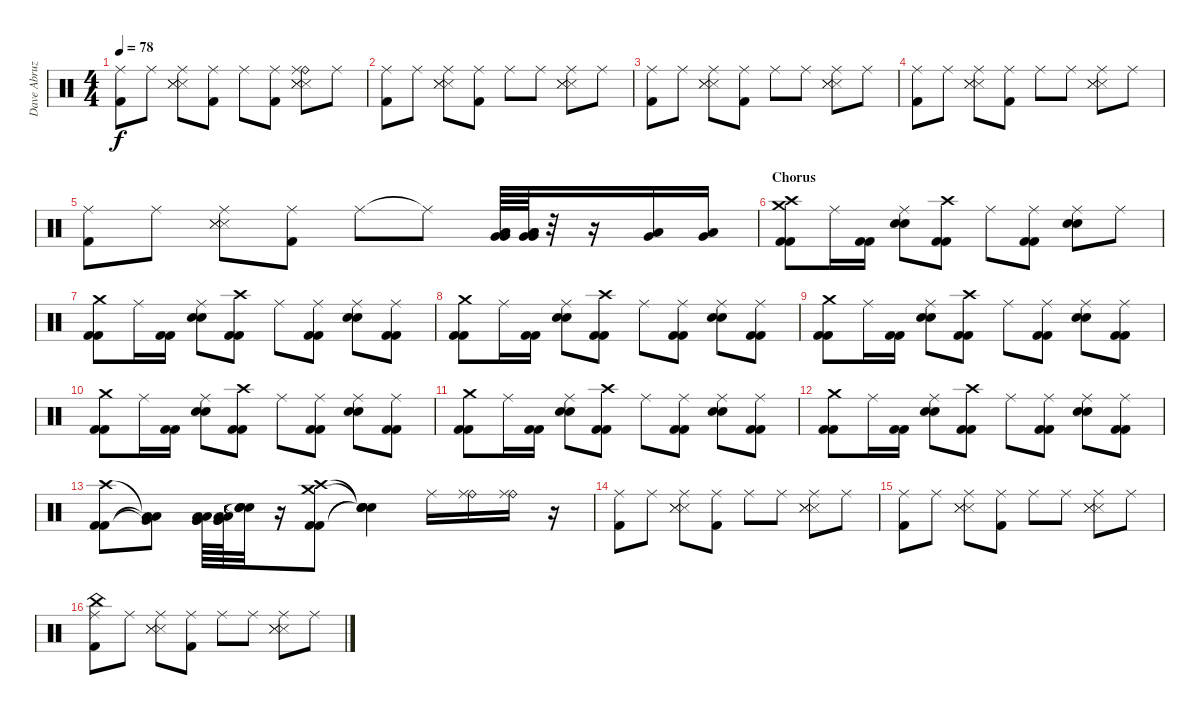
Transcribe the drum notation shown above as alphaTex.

\track ("Dave Abruzzese (live)" "Dave Abruz") {instrument percussion}
\staff {score}
\articulation defaults
\ts (4 4)
\tempo 78
\clef neutral
\ks c
("Ride (middle)" "Kick (hit) 2").8{dy f} "Ride (middle)".8 ("Ride (middle)" "Snare (side stick) 3" "Snare (side stick) 3" "Snare (side stick) 3").8 ("Ride (middle)" "Kick (hit) 2").8 "Ride (middle)".8 ("Ride (middle)" "Kick (hit) 2").8 ("Ride (bell)" "Ride (middle)" "Snare (side stick) 3" "Snare (side stick) 3" "Snare (side stick) 3").8 "Ride (middle)".8 |
("Ride (middle)" "Kick (hit) 2").8 "Ride (middle)".8 ("Ride (middle)" "Snare (side stick) 3" "Snare (side stick) 3" "Snare (side stick) 3").8 ("Ride (middle)" "Kick (hit) 2").8 "Ride (middle)".8 "Ride (middle)".8 ("Ride (middle)" "Snare (side stick) 3" "Snare (side stick) 3" "Snare (side stick) 3").8 "Ride (middle)".8 |
("Ride (middle)" "Kick (hit) 2").8 "Ride (middle)".8 ("Ride (middle)" "Snare (side stick) 3" "Snare (side stick) 3" "Snare (side stick) 3").8 ("Ride (middle)" "Kick (hit) 2").8 "Ride (middle)".8 "Ride (middle)".8 ("Ride (middle)" "Snare (side stick) 3" "Snare (side stick) 3" "Snare (side stick) 3").8 "Ride (middle)".8 |
("Ride (middle)" "Kick (hit) 2").8 "Ride (middle)".8 ("Ride (middle)" "Snare (side stick) 3" "Snare (side stick) 3" "Snare (side stick) 3").8 ("Ride (middle)" "Kick (hit) 2").8 "Ride (middle)".8 "Ride (middle)".8 ("Ride (middle)" "Snare (side stick) 3" "Snare (side stick) 3" "Snare (side stick) 3").8 "Ride (middle)".8 |
("Ride (middle)" "Kick (hit) 2").8 "Ride (middle)".8 ("Ride (middle)" "Snare (side stick) 3" "Snare (side stick) 3" "Snare (side stick) 3").8 ("Ride (middle)" "Kick (hit) 2").8 "Ride (middle)".8 "Ride (middle)"{t}.8 ("Low Tom (hit)" "Low Tom (hit)" "Very Low Tom (hit)" "Very Low Tom (hit)").64 ("Low Tom (hit)" "Low Tom (hit)" "Very Low Tom (hit)" "Very Low Tom (hit)").64 r.32 r.16 ("Low Tom (hit)" "Very Low Tom (hit)").16 ("Low Tom (hit)" "Very Low Tom (hit)").16 |
\section ("" "Chorus")
("Crash medium (hit)" "Crash high (hit)" "Kick (hit) 2" "Kick (hit) 2").8 "Ride (middle)".16 ("Kick (hit) 2" "Kick (hit) 2").16 ("Ride (middle)" "Electric Snare (hit)" "Electric Snare (hit)").8 ("Crash high (hit)" "Kick (hit) 2" "Kick (hit) 2").8 "Ride (middle)".8 ("Ride (middle)" "Kick (hit) 2" "Kick (hit) 2").8 ("Ride (middle)" "Electric Snare (hit)" "Electric Snare (hit)").8 "Ride (middle)".8 |
("Crash medium (hit)" "Kick (hit) 2" "Kick (hit) 2").8 "Ride (middle)".16 ("Kick (hit) 2" "Kick (hit) 2").16 ("Ride (middle)" "Electric Snare (hit)" "Electric Snare (hit)").8 ("Crash high (hit)" "Kick (hit) 2" "Kick (hit) 2").8 "Ride (middle)".8 ("Ride (middle)" "Kick (hit) 2" "Kick (hit) 2").8 ("Ride (middle)" "Electric Snare (hit)" "Electric Snare (hit)").8 ("Ride (middle)" "Kick (hit) 2" "Kick (hit) 2").8 |
("Crash medium (hit)" "Kick (hit) 2" "Kick (hit) 2").8 "Ride (middle)".16 ("Kick (hit) 2" "Kick (hit) 2").16 ("Ride (middle)" "Electric Snare (hit)" "Electric Snare (hit)").8 ("Crash high (hit)" "Kick (hit) 2" "Kick (hit) 2").8 "Ride (middle)".8 ("Ride (middle)" "Kick (hit) 2" "Kick (hit) 2").8 ("Ride (middle)" "Electric Snare (hit)" "Electric Snare (hit)").8 ("Ride (middle)" "Kick (hit) 2" "Kick (hit) 2").8 |
("Crash medium (hit)" "Kick (hit) 2" "Kick (hit) 2").8 "Ride (middle)".16 ("Kick (hit) 2" "Kick (hit) 2").16 ("Ride (middle)" "Electric Snare (hit)" "Electric Snare (hit)").8 ("Crash high (hit)" "Kick (hit) 2" "Kick (hit) 2").8 "Ride (middle)".8 ("Ride (middle)" "Kick (hit) 2" "Kick (hit) 2").8 ("Ride (middle)" "Electric Snare (hit)" "Electric Snare (hit)").8 ("Ride (middle)" "Kick (hit) 2" "Kick (hit) 2").8 |
("Crash medium (hit)" "Kick (hit) 2" "Kick (hit) 2").8 "Ride (middle)".16 ("Kick (hit) 2" "Kick (hit) 2").16 ("Ride (middle)" "Electric Snare (hit)" "Electric Snare (hit)").8 ("Crash high (hit)" "Kick (hit) 2" "Kick (hit) 2").8 "Ride (middle)".8 ("Ride (middle)" "Kick (hit) 2" "Kick (hit) 2").8 ("Ride (middle)" "Electric Snare (hit)" "Electric Snare (hit)").8 ("Ride (middle)" "Kick (hit) 2" "Kick (hit) 2").8 |
("Crash medium (hit)" "Kick (hit) 2" "Kick (hit) 2").8 "Ride (middle)".16 ("Kick (hit) 2" "Kick (hit) 2").16 ("Ride (middle)" "Electric Snare (hit)" "Electric Snare (hit)").8 ("Crash high (hit)" "Kick (hit) 2" "Kick (hit) 2").8 "Ride (middle)".8 ("Ride (middle)" "Kick (hit) 2" "Kick (hit) 2").8 ("Ride (middle)" "Electric Snare (hit)" "Electric Snare (hit)").8 ("Ride (middle)" "Kick (hit) 2" "Kick (hit) 2").8 |
("Crash medium (hit)" "Kick (hit) 2" "Kick (hit) 2").8 "Ride (middle)".16 ("Kick (hit) 2" "Kick (hit) 2").16 ("Ride (middle)" "Electric Snare (hit)" "Electric Snare (hit)").8 ("Crash high (hit)" "Kick (hit) 2" "Kick (hit) 2").8 "Ride (middle)".8 ("Ride (middle)" "Kick (hit) 2" "Kick (hit) 2").8 ("Ride (middle)" "Electric Snare (hit)" "Electric Snare (hit)").8 ("Ride (middle)" "Kick (hit) 2" "Kick (hit) 2").8 |
("Crash high (hit)" "Kick (hit) 2" "Kick (hit) 2").8 ("Low Tom (hit)"{t} "Low Tom (hit)"{t} "Very Low Tom (hit)"{t}).8 ("Low Tom (hit)" "Low Tom (hit)" "Very Low Tom (hit)" "Very Low Tom (hit)").64 ("Low Tom (hit)" "Low Tom (hit)" "Very Low Tom (hit)" "Very Low Tom (hit)").64 ("Snare (hit)"{t} "Snare (hit)"{t} "Snare (hit)"{t} "Snare (hit)"{t}).32 r.16 ("Crash medium (hit)" "Crash high (hit)" "Kick (hit) 2" "Kick (hit) 2").8 ("Snare (hit)"{t} "Snare (hit)"{t} "Snare (hit)"{t} "Snare (hit)"{t}).4 "Ride (middle)".16 ("Ride (bell)" "Ride (middle)").16 ("Ride (bell)" "Ride (middle)").16 r.16 |
("Ride (middle)" "Kick (hit) 2").8 "Ride (middle)".8 ("Ride (middle)" "Snare (side stick) 3" "Snare (side stick) 3" "Snare (side stick) 3").8 ("Ride (middle)" "Kick (hit) 2").8 "Ride (middle)".8 "Ride (middle)".8 ("Ride (middle)" "Snare (side stick) 3" "Snare (side stick) 3" "Snare (side stick) 3").8 "Ride (middle)".8 |
("Ride (middle)" "Kick (hit) 2").8 "Ride (middle)".8 ("Ride (middle)" "Snare (side stick) 3" "Snare (side stick) 3" "Snare (side stick) 3").8 ("Ride (middle)" "Kick (hit) 2").8 "Ride (middle)".8 "Ride (middle)".8 ("Ride (middle)" "Snare (side stick) 3" "Snare (side stick) 3" "Snare (side stick) 3").8 "Ride (middle)".8 |
("China (hit)" "Ride (middle)" "Kick (hit) 2").8 "Ride (middle)".8 ("Ride (middle)" "Snare (side stick) 3" "Snare (side stick) 3" "Snare (side stick) 3").8 ("Ride (middle)" "Kick (hit) 2").8 "Ride (middle)".8 "Ride (middle)".8 ("Ride (middle)" "Snare (side stick) 3" "Snare (side stick) 3" "Snare (side stick) 3").8 "Ride (middle)".8
